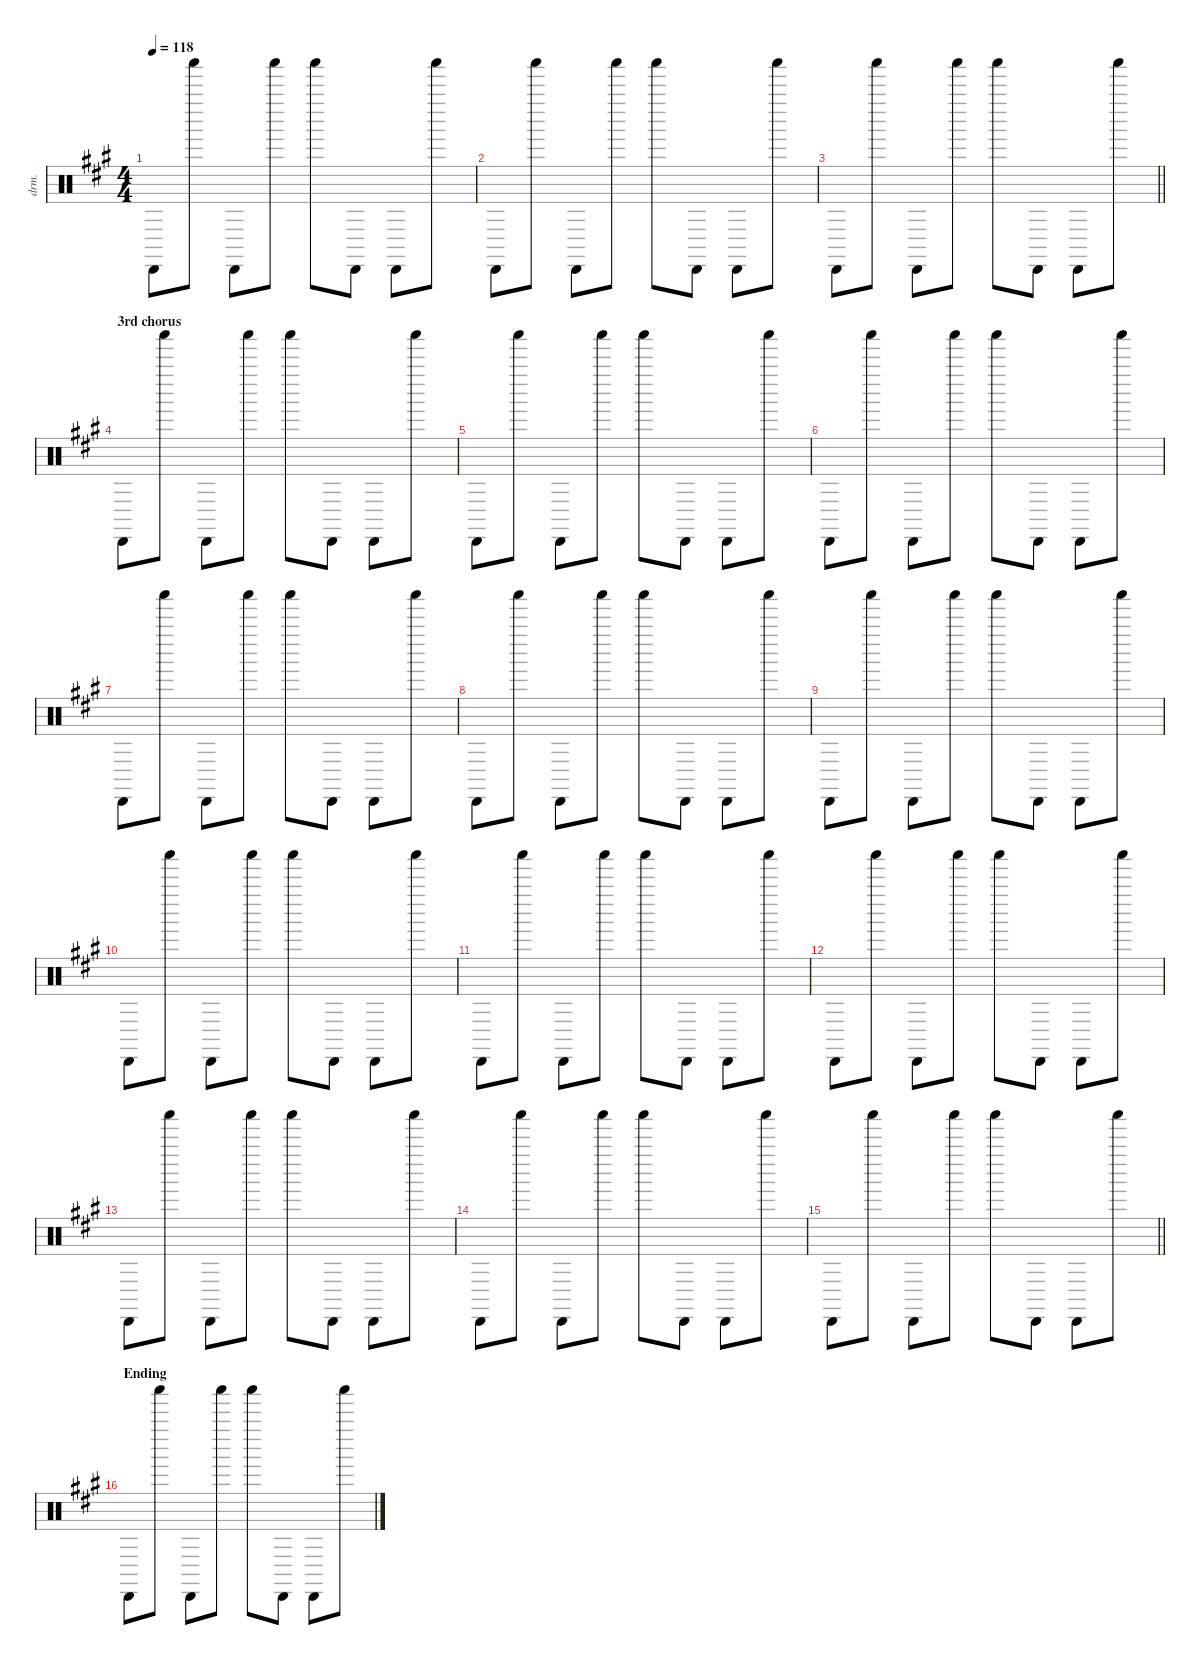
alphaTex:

\defaultSystemsLayout 4
\hideDynamics
\bracketExtendMode nobrackets
\otherSystemsTrackNameOrientation horizontal
\track ("shaker" "drm.") {instrument percussion}
\staff {score}
\articulation defaults
\ts (4 4)
\tempo 118
\clef neutral
\ks f#minor "Cabasa (hit)"{acc forcenatural}.8{dy f} "Shaker (hit)"{acc forcenatural}.8 "Cabasa (hit)"{acc forcenatural}.8{dy mp} "Shaker (hit)"{acc forcenatural}.8{dy f} "Shaker (hit)"{acc forcenatural}.8{dy p} "Cabasa (hit)"{acc forcenatural}.8{dy f} "Cabasa (hit)"{acc forcenatural}.8 "Shaker (hit)"{acc forcenatural}.8
|
"Cabasa (hit)"{acc forcenatural}.8 "Shaker (hit)"{acc forcenatural}.8 "Cabasa (hit)"{acc forcenatural}.8{dy mp} "Shaker (hit)"{acc forcenatural}.8{dy f} "Shaker (hit)"{acc forcenatural}.8{dy p} "Cabasa (hit)"{acc forcenatural}.8{dy f} "Cabasa (hit)"{acc forcenatural}.8 "Shaker (hit)"{acc forcenatural}.8 |
\barLineRight lightlight "Cabasa (hit)"{acc forcenatural}.8 "Shaker (hit)"{acc forcenatural}.8 "Cabasa (hit)"{acc forcenatural}.8{dy mp} "Shaker (hit)"{acc forcenatural}.8{dy f} "Shaker (hit)"{acc forcenatural}.8{dy p} "Cabasa (hit)"{acc forcenatural}.8{dy f} "Cabasa (hit)"{acc forcenatural}.8 "Shaker (hit)"{acc forcenatural}.8
|
\section ("" "3rd chorus")
"Cabasa (hit)"{acc forcenatural}.8 "Shaker (hit)"{acc forcenatural}.8 "Cabasa (hit)"{acc forcenatural}.8{dy mp} "Shaker (hit)"{acc forcenatural}.8{dy f} "Shaker (hit)"{acc forcenatural}.8{dy p} "Cabasa (hit)"{acc forcenatural}.8{dy f} "Cabasa (hit)"{acc forcenatural}.8 "Shaker (hit)"{acc forcenatural}.8 |
"Cabasa (hit)"{acc forcenatural}.8 "Shaker (hit)"{acc forcenatural}.8 "Cabasa (hit)"{acc forcenatural}.8{dy mp} "Shaker (hit)"{acc forcenatural}.8{dy f} "Shaker (hit)"{acc forcenatural}.8{dy p} "Cabasa (hit)"{acc forcenatural}.8{dy f} "Cabasa (hit)"{acc forcenatural}.8 "Shaker (hit)"{acc forcenatural}.8 |
"Cabasa (hit)"{acc forcenatural}.8 "Shaker (hit)"{acc forcenatural}.8 "Cabasa (hit)"{acc forcenatural}.8{dy mp} "Shaker (hit)"{acc forcenatural}.8{dy f} "Shaker (hit)"{acc forcenatural}.8{dy p} "Cabasa (hit)"{acc forcenatural}.8{dy f} "Cabasa (hit)"{acc forcenatural}.8 "Shaker (hit)"{acc forcenatural}.8 |
"Cabasa (hit)"{acc forcenatural}.8 "Shaker (hit)"{acc forcenatural}.8 "Cabasa (hit)"{acc forcenatural}.8{dy mp} "Shaker (hit)"{acc forcenatural}.8{dy f} "Shaker (hit)"{acc forcenatural}.8{dy p} "Cabasa (hit)"{acc forcenatural}.8{dy f} "Cabasa (hit)"{acc forcenatural}.8 "Shaker (hit)"{acc forcenatural}.8 |
"Cabasa (hit)"{acc forcenatural}.8 "Shaker (hit)"{acc forcenatural}.8 "Cabasa (hit)"{acc forcenatural}.8{dy mp} "Shaker (hit)"{acc forcenatural}.8{dy f} "Shaker (hit)"{acc forcenatural}.8{dy p} "Cabasa (hit)"{acc forcenatural}.8{dy f} "Cabasa (hit)"{acc forcenatural}.8 "Shaker (hit)"{acc forcenatural}.8 |
"Cabasa (hit)"{acc forcenatural}.8 "Shaker (hit)"{acc forcenatural}.8 "Cabasa (hit)"{acc forcenatural}.8{dy mp} "Shaker (hit)"{acc forcenatural}.8{dy f} "Shaker (hit)"{acc forcenatural}.8{dy p} "Cabasa (hit)"{acc forcenatural}.8{dy f} "Cabasa (hit)"{acc forcenatural}.8 "Shaker (hit)"{acc forcenatural}.8 |
"Cabasa (hit)"{acc forcenatural}.8 "Shaker (hit)"{acc forcenatural}.8 "Cabasa (hit)"{acc forcenatural}.8{dy mp} "Shaker (hit)"{acc forcenatural}.8{dy f} "Shaker (hit)"{acc forcenatural}.8{dy p} "Cabasa (hit)"{acc forcenatural}.8{dy f} "Cabasa (hit)"{acc forcenatural}.8 "Shaker (hit)"{acc forcenatural}.8 |
"Cabasa (hit)"{acc forcenatural}.8 "Shaker (hit)"{acc forcenatural}.8 "Cabasa (hit)"{acc forcenatural}.8{dy mp} "Shaker (hit)"{acc forcenatural}.8{dy f} "Shaker (hit)"{acc forcenatural}.8{dy p} "Cabasa (hit)"{acc forcenatural}.8{dy f} "Cabasa (hit)"{acc forcenatural}.8 "Shaker (hit)"{acc forcenatural}.8 |
"Cabasa (hit)"{acc forcenatural}.8 "Shaker (hit)"{acc forcenatural}.8 "Cabasa (hit)"{acc forcenatural}.8{dy mp} "Shaker (hit)"{acc forcenatural}.8{dy f} "Shaker (hit)"{acc forcenatural}.8{dy p} "Cabasa (hit)"{acc forcenatural}.8{dy f} "Cabasa (hit)"{acc forcenatural}.8 "Shaker (hit)"{acc forcenatural}.8 |
"Cabasa (hit)"{acc forcenatural}.8 "Shaker (hit)"{acc forcenatural}.8 "Cabasa (hit)"{acc forcenatural}.8{dy mp} "Shaker (hit)"{acc forcenatural}.8{dy f} "Shaker (hit)"{acc forcenatural}.8{dy p} "Cabasa (hit)"{acc forcenatural}.8{dy f} "Cabasa (hit)"{acc forcenatural}.8 "Shaker (hit)"{acc forcenatural}.8 |
"Cabasa (hit)"{acc forcenatural}.8 "Shaker (hit)"{acc forcenatural}.8 "Cabasa (hit)"{acc forcenatural}.8{dy mp} "Shaker (hit)"{acc forcenatural}.8{dy f} "Shaker (hit)"{acc forcenatural}.8{dy p} "Cabasa (hit)"{acc forcenatural}.8{dy f} "Cabasa (hit)"{acc forcenatural}.8 "Shaker (hit)"{acc forcenatural}.8 |
\barLineRight lightlight "Cabasa (hit)"{acc forcenatural}.8 "Shaker (hit)"{acc forcenatural}.8 "Cabasa (hit)"{acc forcenatural}.8{dy mp} "Shaker (hit)"{acc forcenatural}.8{dy f} "Shaker (hit)"{acc forcenatural}.8{dy p} "Cabasa (hit)"{acc forcenatural}.8{dy f} "Cabasa (hit)"{acc forcenatural}.8 "Shaker (hit)"{acc forcenatural}.8
|
\section ("" "Ending")
"Cabasa (hit)"{acc forcenatural}.8 "Shaker (hit)"{acc forcenatural}.8 "Cabasa (hit)"{acc forcenatural}.8{dy mp} "Shaker (hit)"{acc forcenatural}.8{dy f} "Shaker (hit)"{acc forcenatural}.8{dy p} "Cabasa (hit)"{acc forcenatural}.8{dy f} "Cabasa (hit)"{acc forcenatural}.8 "Shaker (hit)"{acc forcenatural}.8
